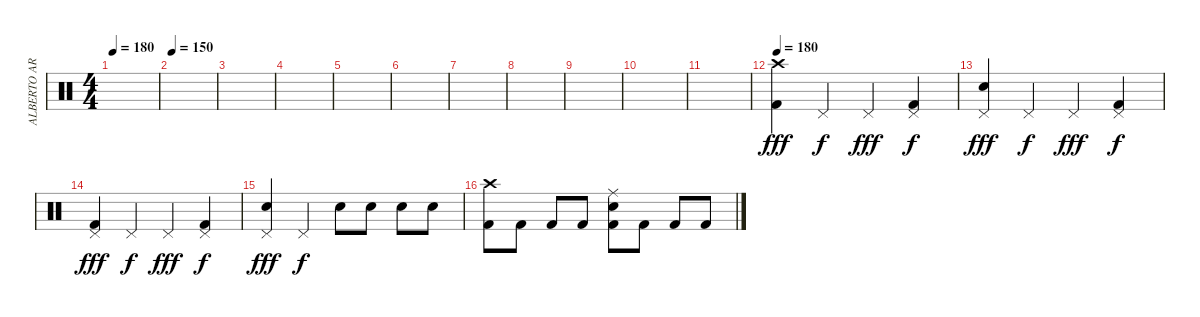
\track ("ALBERTO ARDINES" "ALBERTO AR") {instrument percussion}
\staff {score}
\articulation defaults
\ts (4 4)
\tempo 180
\clef neutral
\ks c
|
\tempo 150
|
|
|
|
|
|
|
|
|
|
\tempo 180
("Crash high (hit)" "Kick (hit) 2").4{dy fff} "Pedal Hi-Hat (hit)".4{dy f} "Pedal Hi-Hat (hit)".4{dy fff} ("Pedal Hi-Hat (hit)" "Kick (hit) 2").4{dy f} |
("Pedal Hi-Hat (hit)" "Electric Snare (hit)").4{dy fff} "Pedal Hi-Hat (hit)".4{dy f} "Pedal Hi-Hat (hit)".4{dy fff} ("Pedal Hi-Hat (hit)" "Kick (hit) 2").4{dy f} |
("Pedal Hi-Hat (hit)" "Kick (hit) 2").4{dy fff} "Pedal Hi-Hat (hit)".4{dy f} "Pedal Hi-Hat (hit)".4{dy fff} ("Pedal Hi-Hat (hit)" "Kick (hit) 2").4{dy f} |
("Pedal Hi-Hat (hit)" "Electric Snare (hit)").4{dy fff} "Pedal Hi-Hat (hit)".4{dy f} "Electric Snare (hit)".8 "Electric Snare (hit)".8 "Electric Snare (hit)".8 "Electric Snare (hit)".8 |
("Crash high (hit)" "Kick (hit) 2").8 "Kick (hit) 2".8 "Kick (hit) 2".8 "Kick (hit) 2".8 ("Ride (middle)" "Electric Snare (hit)" "Kick (hit) 2").8 "Kick (hit) 2".8 "Kick (hit) 2".8 "Kick (hit) 2".8
